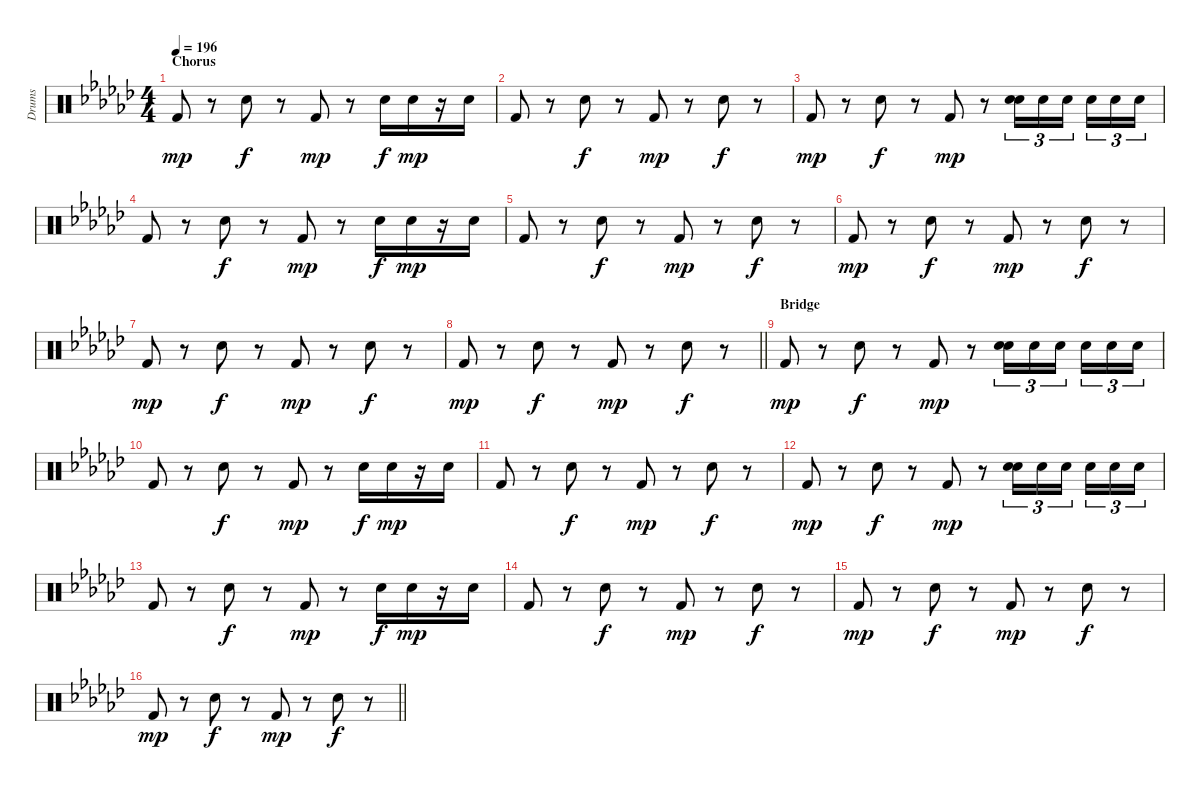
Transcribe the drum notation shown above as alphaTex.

\track ("Drums" "Drums") {instrument percussion}
\staff {score}
\articulation defaults
\ts (4 4)
\section ("" "Chorus")
\tempo 196
\clef neutral
\ks gb "Kick (hit) 2".8{dy mp}
r.8 "Snare (hit) 2".8{dy f} r.8 "Kick (hit) 2".8{dy mp} r.8 "Snare (hit) 2".16{dy f} "Hand Clap (hit)".16{dy mp} r.16 "Hand Clap (hit)".16 |
"Kick (hit) 2".8 r.8 "Snare (hit) 2".8{dy f} r.8 "Kick (hit) 2".8{dy mp} r.8 "Snare (hit) 2".8{dy f} r.8 |
"Kick (hit) 2".8{dy mp} r.8 "Snare (hit) 2".8{dy f} r.8 "Kick (hit) 2".8{dy mp} r.8 ("Hand Clap (hit)" "Snare (hit) 2").16{tu (3 2)} "Hand Clap (hit)".16{tu (3 2)} "Hand Clap (hit)".16{tu (3 2) beam splitsecondary} "Hand Clap (hit)".16{tu (3 2)} "Hand Clap (hit)".16{tu (3 2)} "Hand Clap (hit)".16{tu (3 2)} |
"Kick (hit) 2".8 r.8 "Snare (hit) 2".8{dy f} r.8 "Kick (hit) 2".8{dy mp} r.8 "Snare (hit) 2".16{dy f} "Hand Clap (hit)".16{dy mp} r.16 "Hand Clap (hit)".16 |
"Kick (hit) 2".8 r.8 "Snare (hit) 2".8{dy f} r.8 "Kick (hit) 2".8{dy mp} r.8 "Snare (hit) 2".8{dy f} r.8 |
"Kick (hit) 2".8{dy mp} r.8 "Snare (hit) 2".8{dy f} r.8 "Kick (hit) 2".8{dy mp} r.8 "Snare (hit) 2".8{dy f} r.8 |
"Kick (hit) 2".8{dy mp} r.8 "Snare (hit) 2".8{dy f} r.8 "Kick (hit) 2".8{dy mp} r.8 "Snare (hit) 2".8{dy f} r.8 |
\barLineRight lightlight "Kick (hit) 2".8{dy mp}
r.8 "Snare (hit) 2".8{dy f} r.8 "Kick (hit) 2".8{dy mp} r.8 "Snare (hit) 2".8{dy f} r.8 |
\section ("" "Bridge")
"Kick (hit) 2".8{dy mp} r.8 "Snare (hit) 2".8{dy f} r.8 "Kick (hit) 2".8{dy mp} r.8 ("Hand Clap (hit)" "Snare (hit) 2").16{tu (3 2)} "Hand Clap (hit)".16{tu (3 2)} "Hand Clap (hit)".16{tu (3 2) beam splitsecondary} "Hand Clap (hit)".16{tu (3 2)} "Hand Clap (hit)".16{tu (3 2)} "Hand Clap (hit)".16{tu (3 2)} |
"Kick (hit) 2".8 r.8 "Snare (hit) 2".8{dy f} r.8 "Kick (hit) 2".8{dy mp} r.8 "Snare (hit) 2".16{dy f} "Hand Clap (hit)".16{dy mp} r.16 "Hand Clap (hit)".16 |
"Kick (hit) 2".8 r.8 "Snare (hit) 2".8{dy f} r.8 "Kick (hit) 2".8{dy mp} r.8 "Snare (hit) 2".8{dy f} r.8 |
"Kick (hit) 2".8{dy mp} r.8 "Snare (hit) 2".8{dy f} r.8 "Kick (hit) 2".8{dy mp} r.8 ("Hand Clap (hit)" "Snare (hit) 2").16{tu (3 2)} "Hand Clap (hit)".16{tu (3 2)} "Hand Clap (hit)".16{tu (3 2) beam splitsecondary} "Hand Clap (hit)".16{tu (3 2)} "Hand Clap (hit)".16{tu (3 2)} "Hand Clap (hit)".16{tu (3 2)} |
"Kick (hit) 2".8 r.8 "Snare (hit) 2".8{dy f} r.8 "Kick (hit) 2".8{dy mp} r.8 "Snare (hit) 2".16{dy f} "Hand Clap (hit)".16{dy mp} r.16 "Hand Clap (hit)".16 |
"Kick (hit) 2".8 r.8 "Snare (hit) 2".8{dy f} r.8 "Kick (hit) 2".8{dy mp} r.8 "Snare (hit) 2".8{dy f} r.8 |
"Kick (hit) 2".8{dy mp} r.8 "Snare (hit) 2".8{dy f} r.8 "Kick (hit) 2".8{dy mp} r.8 "Snare (hit) 2".8{dy f} r.8 |
\barLineRight lightlight "Kick (hit) 2".8{dy mp}
r.8 "Snare (hit) 2".8{dy f} r.8 "Kick (hit) 2".8{dy mp} r.8 "Snare (hit) 2".8{dy f} r.8
